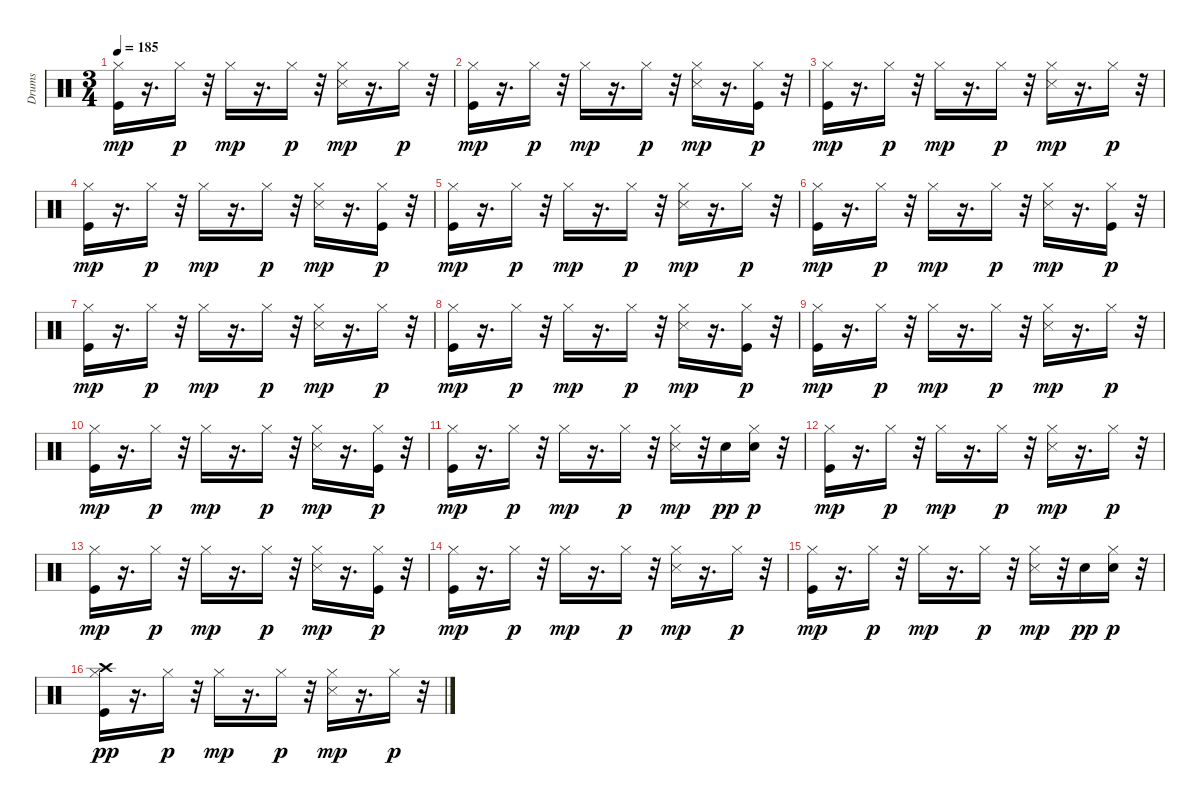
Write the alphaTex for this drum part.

\track ("Drums " "Drums ") {instrument percussion}
\staff {score}
\articulation defaults
\ts (3 4)
\tempo 185
\clef neutral
\ks c
("Kick (hit)" "Hi-Hat (closed)").16{dy mp} r.16{d} "Hi-Hat (closed)".16{dy p} r.32 "Hi-Hat (closed)".16{dy mp} r.16{d} "Hi-Hat (closed)".16{dy p} r.32 ("Hi-Hat (closed)" "Snare (side stick) 3").16{dy mp} r.16{d} "Hi-Hat (closed)".16{dy p} r.32 |
("Kick (hit)" "Hi-Hat (closed)").16{dy mp} r.16{d} "Hi-Hat (closed)".16{dy p} r.32 "Hi-Hat (closed)".16{dy mp} r.16{d} "Hi-Hat (closed)".16{dy p} r.32 ("Hi-Hat (closed)" "Snare (side stick) 3").16{dy mp} r.16{d} ("Kick (hit)" "Hi-Hat (closed)").16{dy p} r.32 |
("Kick (hit)" "Hi-Hat (closed)").16{dy mp} r.16{d} "Hi-Hat (closed)".16{dy p} r.32 "Hi-Hat (closed)".16{dy mp} r.16{d} "Hi-Hat (closed)".16{dy p} r.32 ("Hi-Hat (closed)" "Snare (side stick) 3").16{dy mp} r.16{d} "Hi-Hat (closed)".16{dy p} r.32 |
("Kick (hit)" "Hi-Hat (closed)").16{dy mp} r.16{d} "Hi-Hat (closed)".16{dy p} r.32 "Hi-Hat (closed)".16{dy mp} r.16{d} "Hi-Hat (closed)".16{dy p} r.32 ("Hi-Hat (closed)" "Snare (side stick) 3").16{dy mp} r.16{d} ("Kick (hit)" "Hi-Hat (closed)").16{dy p} r.32 |
("Kick (hit)" "Hi-Hat (closed)").16{dy mp} r.16{d} "Hi-Hat (closed)".16{dy p} r.32 "Hi-Hat (closed)".16{dy mp} r.16{d} "Hi-Hat (closed)".16{dy p} r.32 ("Hi-Hat (closed)" "Snare (side stick) 3").16{dy mp} r.16{d} "Hi-Hat (closed)".16{dy p} r.32 |
("Kick (hit)" "Hi-Hat (closed)").16{dy mp} r.16{d} "Hi-Hat (closed)".16{dy p} r.32 "Hi-Hat (closed)".16{dy mp} r.16{d} "Hi-Hat (closed)".16{dy p} r.32 ("Hi-Hat (closed)" "Snare (side stick) 3").16{dy mp} r.16{d} ("Kick (hit)" "Hi-Hat (closed)").16{dy p} r.32 |
("Kick (hit)" "Hi-Hat (closed)").16{dy mp} r.16{d} "Hi-Hat (closed)".16{dy p} r.32 "Hi-Hat (closed)".16{dy mp} r.16{d} "Hi-Hat (closed)".16{dy p} r.32 ("Hi-Hat (closed)" "Snare (side stick) 3").16{dy mp} r.16{d} "Hi-Hat (closed)".16{dy p} r.32 |
("Kick (hit)" "Hi-Hat (closed)").16{dy mp} r.16{d} "Hi-Hat (closed)".16{dy p} r.32 "Hi-Hat (closed)".16{dy mp} r.16{d} "Hi-Hat (closed)".16{dy p} r.32 ("Hi-Hat (closed)" "Snare (side stick) 3").16{dy mp} r.16{d} ("Kick (hit)" "Hi-Hat (closed)").16{dy p} r.32 |
("Kick (hit)" "Hi-Hat (closed)").16{dy mp} r.16{d} "Hi-Hat (closed)".16{dy p} r.32 "Hi-Hat (closed)".16{dy mp} r.16{d} "Hi-Hat (closed)".16{dy p} r.32 ("Hi-Hat (closed)" "Snare (side stick) 3").16{dy mp} r.16{d} "Hi-Hat (closed)".16{dy p} r.32 |
("Kick (hit)" "Hi-Hat (closed)").16{dy mp} r.16{d} "Hi-Hat (closed)".16{dy p} r.32 "Hi-Hat (closed)".16{dy mp} r.16{d} "Hi-Hat (closed)".16{dy p} r.32 ("Hi-Hat (closed)" "Snare (side stick) 3").16{dy mp} r.16{d} ("Kick (hit)" "Hi-Hat (closed)").16{dy p} r.32 |
("Kick (hit)" "Hi-Hat (closed)").16{dy mp} r.16{d} "Hi-Hat (closed)".16{dy p} r.32 "Hi-Hat (closed)".16{dy mp} r.16{d} "Hi-Hat (closed)".16{dy p} r.32 ("Hi-Hat (closed)" "Snare (side stick) 3").16{dy mp} r.32 "Snare (hit) 2".16{dy pp} ("Snare (hit) 2" "Hi-Hat (closed)").16{dy p} r.32 |
("Kick (hit)" "Hi-Hat (closed)").16{dy mp} r.16{d} "Hi-Hat (closed)".16{dy p} r.32 "Hi-Hat (closed)".16{dy mp} r.16{d} "Hi-Hat (closed)".16{dy p} r.32 ("Hi-Hat (closed)" "Snare (side stick) 3").16{dy mp} r.16{d} "Hi-Hat (closed)".16{dy p} r.32 |
("Kick (hit)" "Hi-Hat (closed)").16{dy mp} r.16{d} "Hi-Hat (closed)".16{dy p} r.32 "Hi-Hat (closed)".16{dy mp} r.16{d} "Hi-Hat (closed)".16{dy p} r.32 ("Hi-Hat (closed)" "Snare (side stick) 3").16{dy mp} r.16{d} ("Kick (hit)" "Hi-Hat (closed)").16{dy p} r.32 |
("Kick (hit)" "Hi-Hat (closed)").16{dy mp} r.16{d} "Hi-Hat (closed)".16{dy p} r.32 "Hi-Hat (closed)".16{dy mp} r.16{d} "Hi-Hat (closed)".16{dy p} r.32 ("Hi-Hat (closed)" "Snare (side stick) 3").16{dy mp} r.16{d} "Hi-Hat (closed)".16{dy p} r.32 |
("Kick (hit)" "Hi-Hat (closed)").16{dy mp} r.16{d} "Hi-Hat (closed)".16{dy p} r.32 "Hi-Hat (closed)".16{dy mp} r.16{d} "Hi-Hat (closed)".16{dy p} r.32 ("Hi-Hat (closed)" "Snare (side stick) 3").16{dy mp} r.32 "Snare (hit) 2".16{dy pp} ("Snare (hit) 2" "Hi-Hat (closed)").16{dy p} r.32 |
("Kick (hit)" "Hi-Hat (closed)" "Crash high (hit)").16{dy pp} r.16{d} "Hi-Hat (closed)".16{dy p} r.32 "Hi-Hat (closed)".16{dy mp} r.16{d} "Hi-Hat (closed)".16{dy p} r.32 ("Hi-Hat (closed)" "Snare (side stick) 3").16{dy mp} r.16{d} "Hi-Hat (closed)".16{dy p} r.32
